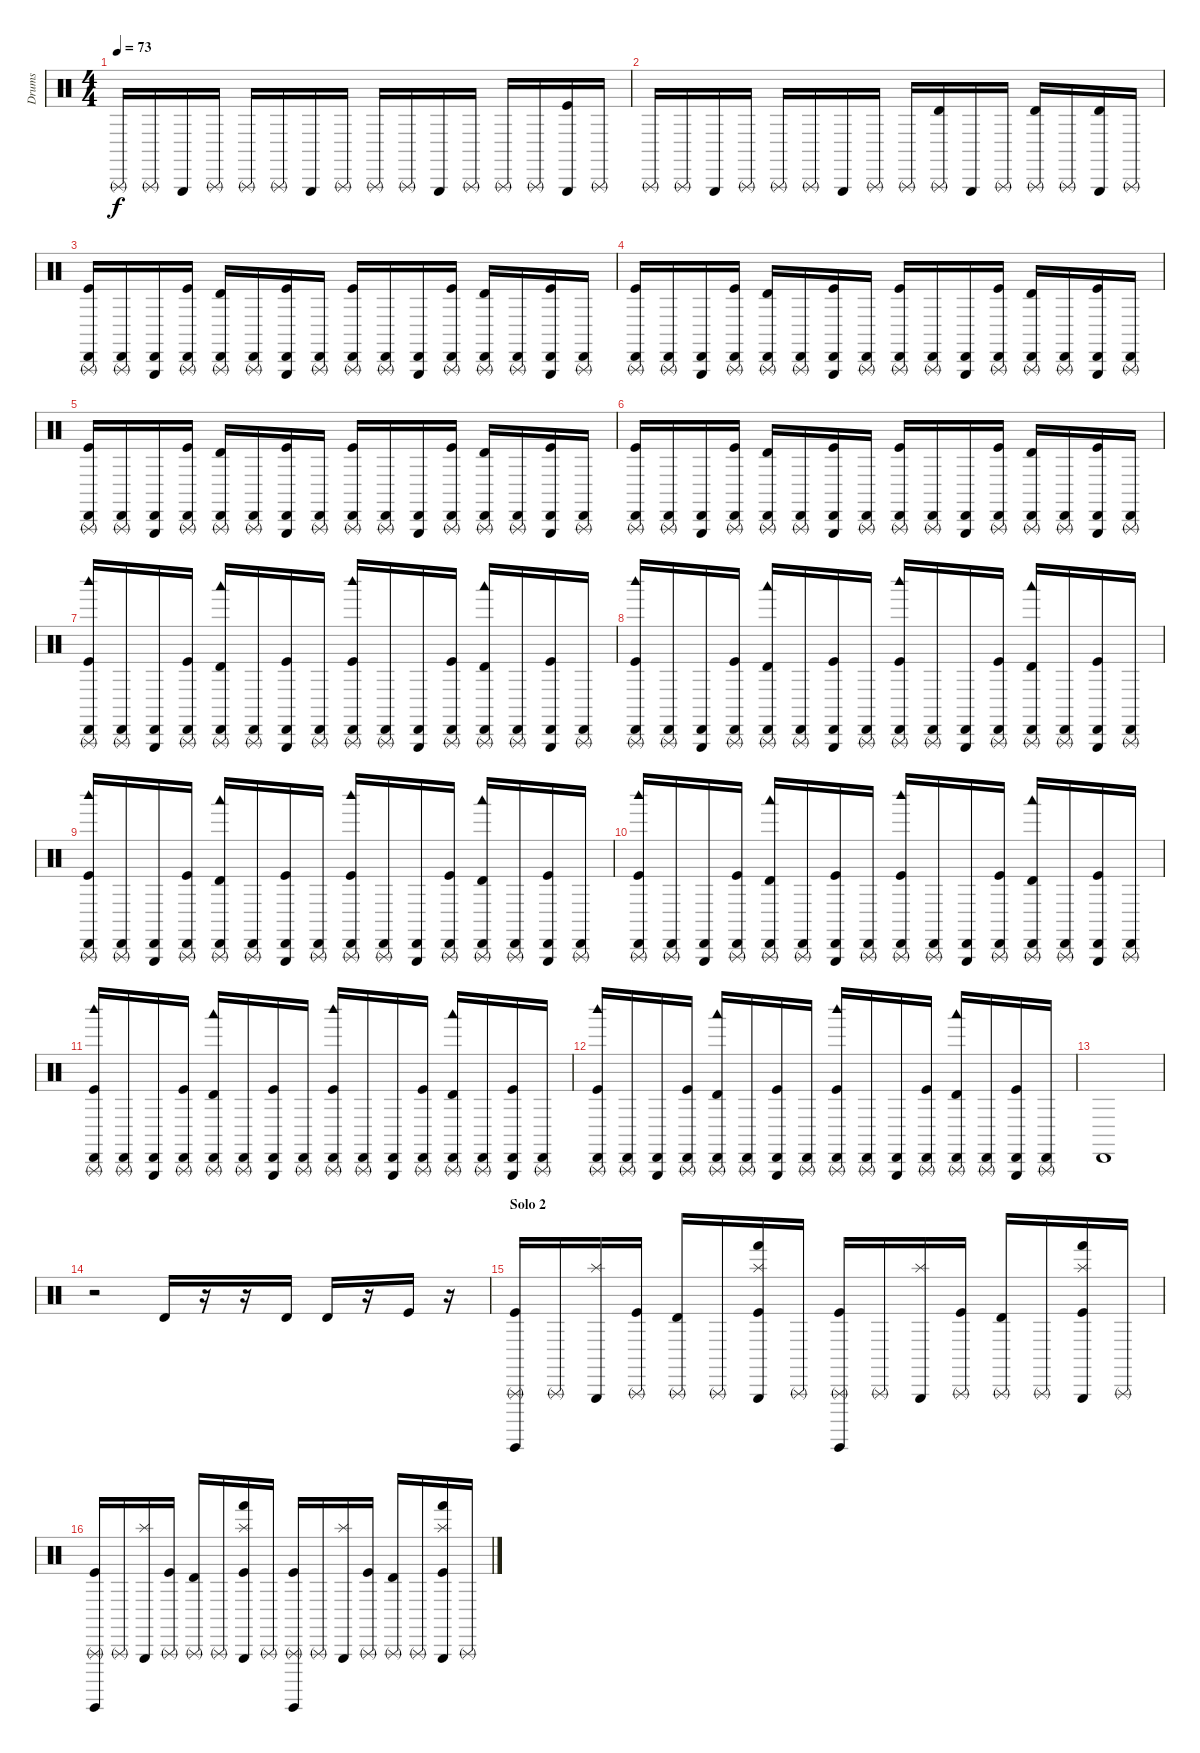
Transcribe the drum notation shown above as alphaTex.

\track ("Drums" "Drums") {instrument percussion}
\staff {score}
\articulation defaults
\ts (4 4)
\tempo 73
\clef neutral
\ks c "Triangle (rnute)".16{dy f} "Triangle (rnute)".16 "Triangle (hit)".16 "Triangle (rnute)".16 "Triangle (rnute)".16 "Triangle (rnute)".16 "Triangle (hit)".16 "Triangle (rnute)".16 "Triangle (rnute)".16 "Triangle (rnute)".16 "Triangle (hit)".16 "Triangle (rnute)".16 "Triangle (rnute)".16 "Triangle (rnute)".16
("Kick (hit)" "Triangle (hit)").16 "Triangle (rnute)".16 |
"Triangle (rnute)".16 "Triangle (rnute)".16 "Triangle (hit)".16 "Triangle (rnute)".16 "Triangle (rnute)".16 "Triangle (rnute)".16 "Triangle (hit)".16 "Triangle (rnute)".16 "Triangle (rnute)".16 ("Timbale high (hit)" "Triangle (rnute)").16 "Triangle (hit)".16 "Triangle (rnute)".16 ("Timbale high (hit)" "Triangle (rnute)").16 "Triangle (rnute)".16 ("Timbale high (hit)" "Triangle (hit)").16 "Triangle (rnute)".16 |
("Cabasa (hit)" "Kick (hit)" "Triangle (rnute)").16 ("Cabasa (hit)" "Triangle (rnute)").16 ("Cabasa (hit)" "Triangle (hit)").16 ("Cabasa (hit)" "Kick (hit)" "Triangle (rnute)").16 ("Cabasa (hit)" "Timbale high (hit)" "Triangle (rnute)").16 ("Cabasa (hit)" "Triangle (rnute)").16 ("Cabasa (hit)" "Kick (hit)" "Triangle (hit)").16 ("Cabasa (hit)" "Triangle (rnute)").16 ("Cabasa (hit)" "Kick (hit)" "Triangle (rnute)").16 ("Cabasa (hit)" "Triangle (rnute)").16 ("Cabasa (hit)" "Triangle (hit)").16 ("Cabasa (hit)" "Kick (hit)" "Triangle (rnute)").16 ("Cabasa (hit)" "Timbale high (hit)" "Triangle (rnute)").16 ("Cabasa (hit)" "Triangle (rnute)").16 ("Cabasa (hit)" "Kick (hit)" "Triangle (hit)").16 ("Cabasa (hit)" "Triangle (rnute)").16 |
("Cabasa (hit)" "Kick (hit)" "Triangle (rnute)").16 ("Cabasa (hit)" "Triangle (rnute)").16 ("Cabasa (hit)" "Triangle (hit)").16 ("Cabasa (hit)" "Kick (hit)" "Triangle (rnute)").16 ("Cabasa (hit)" "Timbale high (hit)" "Triangle (rnute)").16 ("Cabasa (hit)" "Triangle (rnute)").16 ("Cabasa (hit)" "Kick (hit)" "Triangle (hit)").16 ("Cabasa (hit)" "Triangle (rnute)").16 ("Cabasa (hit)" "Kick (hit)" "Triangle (rnute)").16 ("Cabasa (hit)" "Triangle (rnute)").16 ("Cabasa (hit)" "Triangle (hit)").16 ("Cabasa (hit)" "Kick (hit)" "Triangle (rnute)").16 ("Cabasa (hit)" "Timbale high (hit)" "Triangle (rnute)").16 ("Cabasa (hit)" "Triangle (rnute)").16 ("Cabasa (hit)" "Kick (hit)" "Triangle (hit)").16 ("Cabasa (hit)" "Triangle (rnute)").16 |
("Cabasa (hit)" "Kick (hit)" "Triangle (rnute)").16 ("Cabasa (hit)" "Triangle (rnute)").16 ("Cabasa (hit)" "Triangle (hit)").16 ("Cabasa (hit)" "Kick (hit)" "Triangle (rnute)").16 ("Cabasa (hit)" "Timbale high (hit)" "Triangle (rnute)").16 ("Cabasa (hit)" "Triangle (rnute)").16 ("Cabasa (hit)" "Kick (hit)" "Triangle (hit)").16 ("Cabasa (hit)" "Triangle (rnute)").16 ("Cabasa (hit)" "Kick (hit)" "Triangle (rnute)").16 ("Cabasa (hit)" "Triangle (rnute)").16 ("Cabasa (hit)" "Triangle (hit)").16 ("Cabasa (hit)" "Kick (hit)" "Triangle (rnute)").16 ("Cabasa (hit)" "Timbale high (hit)" "Triangle (rnute)").16 ("Cabasa (hit)" "Triangle (rnute)").16 ("Cabasa (hit)" "Kick (hit)" "Triangle (hit)").16 ("Cabasa (hit)" "Triangle (rnute)").16 |
("Cabasa (hit)" "Kick (hit)" "Triangle (rnute)").16 ("Cabasa (hit)" "Triangle (rnute)").16 ("Cabasa (hit)" "Triangle (hit)").16 ("Cabasa (hit)" "Kick (hit)" "Triangle (rnute)").16 ("Cabasa (hit)" "Timbale high (hit)" "Triangle (rnute)").16 ("Cabasa (hit)" "Triangle (rnute)").16 ("Cabasa (hit)" "Kick (hit)" "Triangle (hit)").16 ("Cabasa (hit)" "Triangle (rnute)").16 ("Cabasa (hit)" "Kick (hit)" "Triangle (rnute)").16 ("Cabasa (hit)" "Triangle (rnute)").16 ("Cabasa (hit)" "Triangle (hit)").16 ("Cabasa (hit)" "Kick (hit)" "Triangle (rnute)").16 ("Cabasa (hit)" "Timbale high (hit)" "Triangle (rnute)").16 ("Cabasa (hit)" "Triangle (rnute)").16 ("Cabasa (hit)" "Kick (hit)" "Triangle (hit)").16 ("Cabasa (hit)" "Triangle (rnute)").16 |
("Woodblock high (hit)" "Cabasa (hit)" "Kick (hit)" "Triangle (rnute)").16 ("Cabasa (hit)" "Triangle (rnute)").16 ("Cabasa (hit)" "Triangle (hit)").16 ("Cabasa (hit)" "Kick (hit)" "Triangle (rnute)").16 ("Cabasa (hit)" "Timbale high (hit)" "Woodblock low (hit)" "Triangle (rnute)").16 ("Cabasa (hit)" "Triangle (rnute)").16 ("Cabasa (hit)" "Kick (hit)" "Triangle (hit)").16 ("Cabasa (hit)" "Triangle (rnute)").16 ("Woodblock high (hit)" "Cabasa (hit)" "Kick (hit)" "Triangle (rnute)").16 ("Cabasa (hit)" "Triangle (rnute)").16 ("Cabasa (hit)" "Triangle (hit)").16 ("Cabasa (hit)" "Kick (hit)" "Triangle (rnute)").16 ("Cabasa (hit)" "Timbale high (hit)" "Woodblock low (hit)" "Triangle (rnute)").16 ("Cabasa (hit)" "Triangle (rnute)").16 ("Cabasa (hit)" "Kick (hit)" "Triangle (hit)").16 ("Cabasa (hit)" "Triangle (rnute)").16 |
("Woodblock high (hit)" "Cabasa (hit)" "Kick (hit)" "Triangle (rnute)").16 ("Cabasa (hit)" "Triangle (rnute)").16 ("Cabasa (hit)" "Triangle (hit)").16 ("Cabasa (hit)" "Kick (hit)" "Triangle (rnute)").16 ("Cabasa (hit)" "Timbale high (hit)" "Woodblock low (hit)" "Triangle (rnute)").16 ("Cabasa (hit)" "Triangle (rnute)").16 ("Cabasa (hit)" "Kick (hit)" "Triangle (hit)").16 ("Cabasa (hit)" "Triangle (rnute)").16 ("Woodblock high (hit)" "Cabasa (hit)" "Kick (hit)" "Triangle (rnute)").16 ("Cabasa (hit)" "Triangle (rnute)").16 ("Cabasa (hit)" "Triangle (hit)").16 ("Cabasa (hit)" "Kick (hit)" "Triangle (rnute)").16 ("Cabasa (hit)" "Timbale high (hit)" "Woodblock low (hit)" "Triangle (rnute)").16 ("Cabasa (hit)" "Triangle (rnute)").16 ("Cabasa (hit)" "Kick (hit)" "Triangle (hit)").16 ("Cabasa (hit)" "Triangle (rnute)").16 |
("Woodblock high (hit)" "Cabasa (hit)" "Kick (hit)" "Triangle (rnute)").16 ("Cabasa (hit)" "Triangle (rnute)").16 ("Cabasa (hit)" "Triangle (hit)").16 ("Cabasa (hit)" "Kick (hit)" "Triangle (rnute)").16 ("Cabasa (hit)" "Timbale high (hit)" "Woodblock low (hit)" "Triangle (rnute)").16 ("Cabasa (hit)" "Triangle (rnute)").16 ("Cabasa (hit)" "Kick (hit)" "Triangle (hit)").16 ("Cabasa (hit)" "Triangle (rnute)").16 ("Woodblock high (hit)" "Cabasa (hit)" "Kick (hit)" "Triangle (rnute)").16 ("Cabasa (hit)" "Triangle (rnute)").16 ("Cabasa (hit)" "Triangle (hit)").16 ("Cabasa (hit)" "Kick (hit)" "Triangle (rnute)").16 ("Cabasa (hit)" "Timbale high (hit)" "Woodblock low (hit)" "Triangle (rnute)").16 ("Cabasa (hit)" "Triangle (rnute)").16 ("Cabasa (hit)" "Kick (hit)" "Triangle (hit)").16 ("Cabasa (hit)" "Triangle (rnute)").16 |
("Woodblock high (hit)" "Cabasa (hit)" "Kick (hit)" "Triangle (rnute)").16 ("Cabasa (hit)" "Triangle (rnute)").16 ("Cabasa (hit)" "Triangle (hit)").16 ("Cabasa (hit)" "Kick (hit)" "Triangle (rnute)").16 ("Cabasa (hit)" "Timbale high (hit)" "Woodblock low (hit)" "Triangle (rnute)").16 ("Cabasa (hit)" "Triangle (rnute)").16 ("Cabasa (hit)" "Kick (hit)" "Triangle (hit)").16 ("Cabasa (hit)" "Triangle (rnute)").16 ("Woodblock high (hit)" "Cabasa (hit)" "Kick (hit)" "Triangle (rnute)").16 ("Cabasa (hit)" "Triangle (rnute)").16 ("Cabasa (hit)" "Triangle (hit)").16 ("Cabasa (hit)" "Kick (hit)" "Triangle (rnute)").16 ("Cabasa (hit)" "Timbale high (hit)" "Woodblock low (hit)" "Triangle (rnute)").16 ("Cabasa (hit)" "Triangle (rnute)").16 ("Cabasa (hit)" "Kick (hit)" "Triangle (hit)").16 ("Cabasa (hit)" "Triangle (rnute)").16 |
("Woodblock high (hit)" "Cabasa (hit)" "Kick (hit)" "Triangle (rnute)").16 ("Cabasa (hit)" "Triangle (rnute)").16 ("Cabasa (hit)" "Triangle (hit)").16 ("Cabasa (hit)" "Kick (hit)" "Triangle (rnute)").16 ("Cabasa (hit)" "Timbale high (hit)" "Woodblock low (hit)" "Triangle (rnute)").16 ("Cabasa (hit)" "Triangle (rnute)").16 ("Cabasa (hit)" "Kick (hit)" "Triangle (hit)").16 ("Cabasa (hit)" "Triangle (rnute)").16 ("Woodblock high (hit)" "Cabasa (hit)" "Kick (hit)" "Triangle (rnute)").16 ("Cabasa (hit)" "Triangle (rnute)").16 ("Cabasa (hit)" "Triangle (hit)").16 ("Cabasa (hit)" "Kick (hit)" "Triangle (rnute)").16 ("Cabasa (hit)" "Timbale high (hit)" "Woodblock low (hit)" "Triangle (rnute)").16 ("Cabasa (hit)" "Triangle (rnute)").16 ("Cabasa (hit)" "Kick (hit)" "Triangle (hit)").16 ("Cabasa (hit)" "Triangle (rnute)").16 |
("Woodblock high (hit)" "Cabasa (hit)" "Kick (hit)" "Triangle (rnute)").16 ("Cabasa (hit)" "Triangle (rnute)").16 ("Cabasa (hit)" "Triangle (hit)").16 ("Cabasa (hit)" "Kick (hit)" "Triangle (rnute)").16 ("Cabasa (hit)" "Timbale high (hit)" "Woodblock low (hit)" "Triangle (rnute)").16 ("Cabasa (hit)" "Triangle (rnute)").16 ("Cabasa (hit)" "Kick (hit)" "Triangle (hit)").16 ("Cabasa (hit)" "Triangle (rnute)").16 ("Woodblock high (hit)" "Cabasa (hit)" "Kick (hit)" "Triangle (rnute)").16 ("Cabasa (hit)" "Triangle (rnute)").16 ("Cabasa (hit)" "Triangle (hit)").16 ("Cabasa (hit)" "Kick (hit)" "Triangle (rnute)").16 ("Cabasa (hit)" "Timbale high (hit)" "Woodblock low (hit)" "Triangle (rnute)").16 ("Cabasa (hit)" "Triangle (rnute)").16 ("Cabasa (hit)" "Kick (hit)" "Triangle (hit)").16 ("Cabasa (hit)" "Triangle (rnute)").16 |
"Cabasa (hit)".1 |
r.2 "Timbale high (hit)".16 r.16 r.16 "Timbale high (hit)".16 "Timbale high (hit)".16 r.16 "Kick (hit)".16 r.16 |
\section ("" "Solo 2")
("Guiro (hit)" "Kick (hit)" "Triangle (rnute)").16 "Triangle (rnute)".16 ("Triangle (hit)" "Splash (hit)").16 ("Kick (hit)" "Triangle (rnute)").16 ("Timbale high (hit)" "Triangle (rnute)").16 "Triangle (rnute)".16 ("Hand (hit)" "Kick (hit)" "Triangle (hit)" "Splash (hit)").16 "Triangle (rnute)".16 ("Guiro (hit)" "Kick (hit)" "Triangle (rnute)").16 "Triangle (rnute)".16 ("Triangle (hit)" "Splash (hit)").16 ("Kick (hit)" "Triangle (rnute)").16 ("Timbale high (hit)" "Triangle (rnute)").16 "Triangle (rnute)".16 ("Hand (hit)" "Kick (hit)" "Triangle (hit)" "Splash (hit)").16 "Triangle (rnute)".16 |
("Guiro (hit)" "Kick (hit)" "Triangle (rnute)").16 "Triangle (rnute)".16 ("Triangle (hit)" "Splash (hit)").16 ("Kick (hit)" "Triangle (rnute)").16 ("Timbale high (hit)" "Triangle (rnute)").16 "Triangle (rnute)".16 ("Hand (hit)" "Kick (hit)" "Triangle (hit)" "Splash (hit)").16 "Triangle (rnute)".16 ("Guiro (hit)" "Kick (hit)" "Triangle (rnute)").16 "Triangle (rnute)".16 ("Triangle (hit)" "Splash (hit)").16 ("Kick (hit)" "Triangle (rnute)").16 ("Timbale high (hit)" "Triangle (rnute)").16 "Triangle (rnute)".16 ("Hand (hit)" "Kick (hit)" "Triangle (hit)" "Splash (hit)").16 "Triangle (rnute)".16
